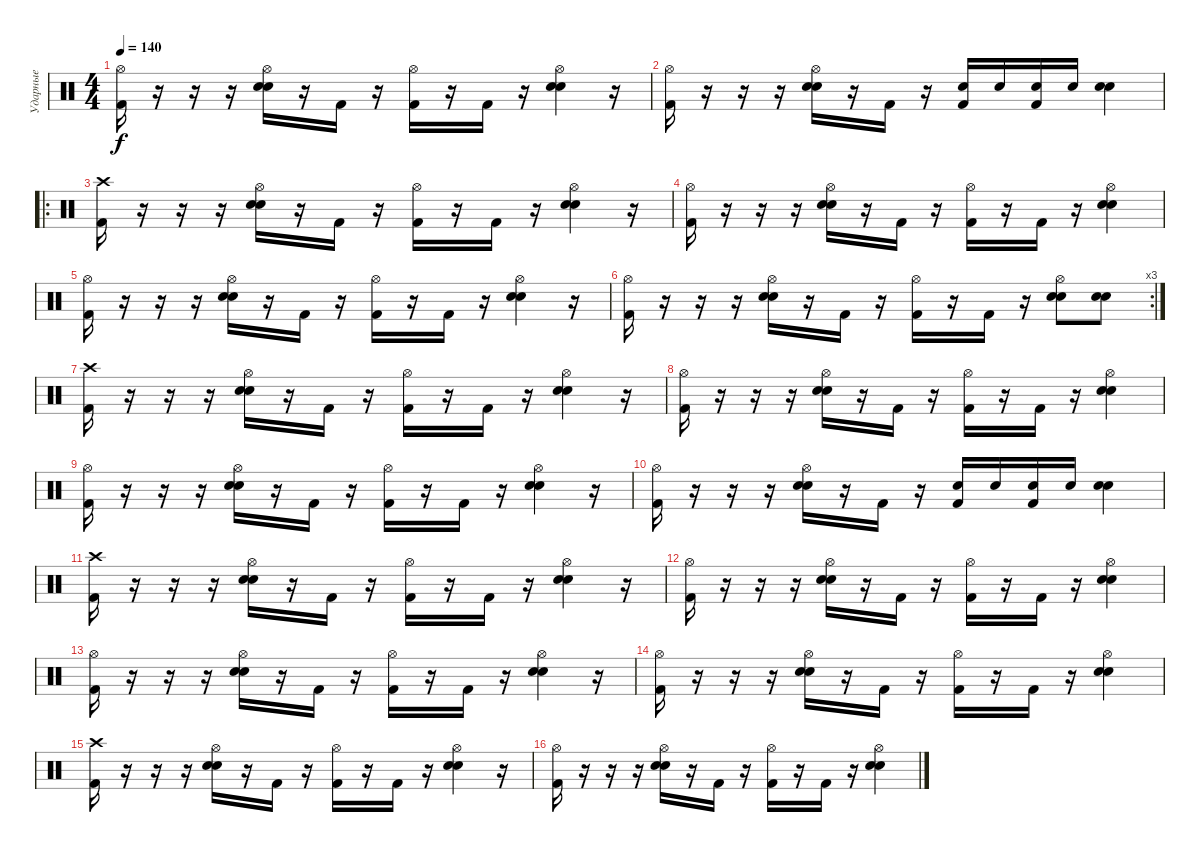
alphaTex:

\track ("Ударные" "Ударные") {instrument percussion}
\staff {score}
\articulation defaults
\ts (4 4)
\tempo 140
\clef neutral
\ks c
("Hi-Hat (open)" "Kick (hit) 2").16{dy f} r.16 r.16 r.16 ("Hi-Hat (open)" "Electric Snare (hit)" "Snare (hit) 2").16 r.16 "Kick (hit) 2".16 r.16 ("Hi-Hat (open)" "Kick (hit) 2").16 r.16 "Kick (hit) 2".16 r.16 ("Hi-Hat (open)" "Electric Snare (hit)" "Snare (hit) 2").4 r.16 |
("Hi-Hat (open)" "Kick (hit) 2").16 r.16 r.16 r.16 ("Hi-Hat (open)" "Electric Snare (hit)" "Snare (hit) 2").16 r.16 "Kick (hit) 2".16 r.16 ("Kick (hit) 2" "Electric Snare (hit)").16 "Electric Snare (hit)".16 ("Kick (hit) 2" "Electric Snare (hit)").16 "Electric Snare (hit)".16 ("Electric Snare (hit)" "Snare (hit) 2").4 |
\ro
("Crash high (hit)" "Kick (hit) 2").16 r.16 r.16 r.16 ("Hi-Hat (open)" "Electric Snare (hit)" "Snare (hit) 2").16 r.16 "Kick (hit) 2".16 r.16 ("Hi-Hat (open)" "Kick (hit) 2").16 r.16 "Kick (hit) 2".16 r.16 ("Hi-Hat (open)" "Electric Snare (hit)" "Snare (hit) 2").4 r.16 |
("Hi-Hat (open)" "Kick (hit) 2").16 r.16 r.16 r.16 ("Hi-Hat (open)" "Electric Snare (hit)" "Snare (hit) 2").16 r.16 "Kick (hit) 2".16 r.16 ("Hi-Hat (open)" "Kick (hit) 2").16 r.16 "Kick (hit) 2".16 r.16 ("Hi-Hat (open)" "Electric Snare (hit)" "Snare (hit) 2").4 |
("Hi-Hat (open)" "Kick (hit) 2").16 r.16 r.16 r.16 ("Hi-Hat (open)" "Electric Snare (hit)" "Snare (hit) 2").16 r.16 "Kick (hit) 2".16 r.16 ("Hi-Hat (open)" "Kick (hit) 2").16 r.16 "Kick (hit) 2".16 r.16 ("Hi-Hat (open)" "Electric Snare (hit)" "Snare (hit) 2").4 r.16 |
\rc 3
("Hi-Hat (open)" "Kick (hit) 2").16 r.16 r.16 r.16 ("Hi-Hat (open)" "Electric Snare (hit)" "Snare (hit) 2").16 r.16 "Kick (hit) 2".16 r.16 ("Hi-Hat (open)" "Kick (hit) 2").16 r.16 "Kick (hit) 2".16 r.16 ("Hi-Hat (open)" "Electric Snare (hit)" "Snare (hit) 2").8 ("Electric Snare (hit)" "Snare (hit) 2").8 |
("Crash high (hit)" "Kick (hit) 2").16 r.16 r.16 r.16 ("Hi-Hat (open)" "Electric Snare (hit)" "Snare (hit) 2").16 r.16 "Kick (hit) 2".16 r.16 ("Hi-Hat (open)" "Kick (hit) 2").16 r.16 "Kick (hit) 2".16 r.16 ("Hi-Hat (open)" "Electric Snare (hit)" "Snare (hit) 2").4 r.16 |
("Hi-Hat (open)" "Kick (hit) 2").16 r.16 r.16 r.16 ("Hi-Hat (open)" "Electric Snare (hit)" "Snare (hit) 2").16 r.16 "Kick (hit) 2".16 r.16 ("Hi-Hat (open)" "Kick (hit) 2").16 r.16 "Kick (hit) 2".16 r.16 ("Hi-Hat (open)" "Electric Snare (hit)" "Snare (hit) 2").4 |
("Hi-Hat (open)" "Kick (hit) 2").16 r.16 r.16 r.16 ("Hi-Hat (open)" "Electric Snare (hit)" "Snare (hit) 2").16 r.16 "Kick (hit) 2".16 r.16 ("Hi-Hat (open)" "Kick (hit) 2").16 r.16 "Kick (hit) 2".16 r.16 ("Hi-Hat (open)" "Electric Snare (hit)" "Snare (hit) 2").4 r.16 |
("Hi-Hat (open)" "Kick (hit) 2").16 r.16 r.16 r.16 ("Hi-Hat (open)" "Electric Snare (hit)" "Snare (hit) 2").16 r.16 "Kick (hit) 2".16 r.16 ("Kick (hit) 2" "Electric Snare (hit)").16 "Electric Snare (hit)".16 ("Kick (hit) 2" "Electric Snare (hit)").16 "Electric Snare (hit)".16 ("Electric Snare (hit)" "Snare (hit) 2").4 |
("Crash high (hit)" "Kick (hit) 2").16 r.16 r.16 r.16 ("Hi-Hat (open)" "Electric Snare (hit)" "Snare (hit) 2").16 r.16 "Kick (hit) 2".16 r.16 ("Hi-Hat (open)" "Kick (hit) 2").16 r.16 "Kick (hit) 2".16 r.16 ("Hi-Hat (open)" "Electric Snare (hit)" "Snare (hit) 2").4 r.16 |
("Hi-Hat (open)" "Kick (hit) 2").16 r.16 r.16 r.16 ("Hi-Hat (open)" "Electric Snare (hit)" "Snare (hit) 2").16 r.16 "Kick (hit) 2".16 r.16 ("Hi-Hat (open)" "Kick (hit) 2").16 r.16 "Kick (hit) 2".16 r.16 ("Hi-Hat (open)" "Electric Snare (hit)" "Snare (hit) 2").4 |
("Hi-Hat (open)" "Kick (hit) 2").16 r.16 r.16 r.16 ("Hi-Hat (open)" "Electric Snare (hit)" "Snare (hit) 2").16 r.16 "Kick (hit) 2".16 r.16 ("Hi-Hat (open)" "Kick (hit) 2").16 r.16 "Kick (hit) 2".16 r.16 ("Hi-Hat (open)" "Electric Snare (hit)" "Snare (hit) 2").4 r.16 |
("Hi-Hat (open)" "Kick (hit) 2").16 r.16 r.16 r.16 ("Hi-Hat (open)" "Electric Snare (hit)" "Snare (hit) 2").16 r.16 "Kick (hit) 2".16 r.16 ("Hi-Hat (open)" "Kick (hit) 2").16 r.16 "Kick (hit) 2".16 r.16 ("Hi-Hat (open)" "Electric Snare (hit)" "Snare (hit) 2").4 |
("Crash high (hit)" "Kick (hit) 2").16 r.16 r.16 r.16 ("Hi-Hat (open)" "Electric Snare (hit)" "Snare (hit) 2").16 r.16 "Kick (hit) 2".16 r.16 ("Hi-Hat (open)" "Kick (hit) 2").16 r.16 "Kick (hit) 2".16 r.16 ("Hi-Hat (open)" "Electric Snare (hit)" "Snare (hit) 2").4 r.16 |
("Hi-Hat (open)" "Kick (hit) 2").16 r.16 r.16 r.16 ("Hi-Hat (open)" "Electric Snare (hit)" "Snare (hit) 2").16 r.16 "Kick (hit) 2".16 r.16 ("Hi-Hat (open)" "Kick (hit) 2").16 r.16 "Kick (hit) 2".16 r.16 ("Hi-Hat (open)" "Electric Snare (hit)" "Snare (hit) 2").4
